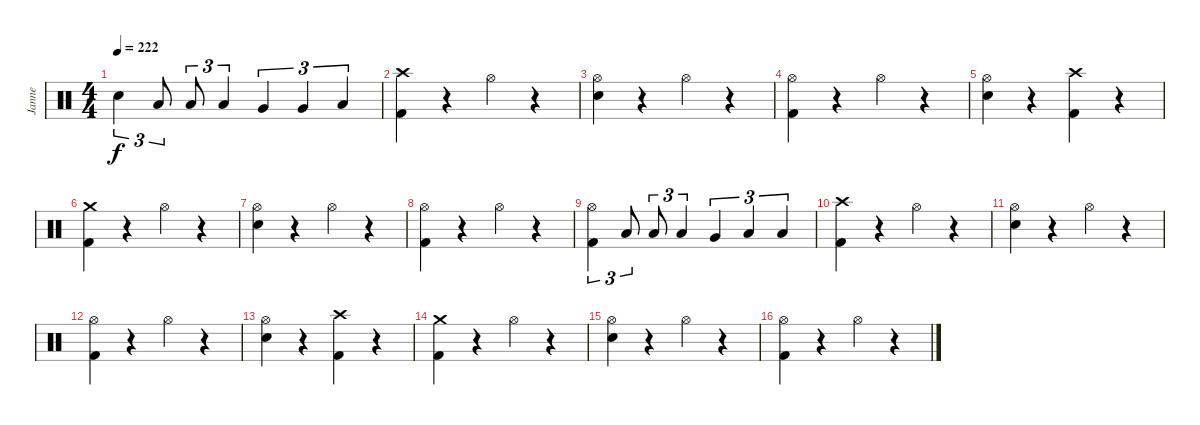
\track ("Janne" "Janne") {instrument percussion}
\staff {score}
\articulation defaults
\ts (4 4)
\tempo 222
\clef neutral
\ks c "Electric Snare (hit)".4{tu (3 2) dy f} "Low Tom (hit)".8{tu (3 2)} "Low Tom (hit)".8{tu (3 2)} "Low Tom (hit)".4{tu (3 2)} "Very Low Tom (hit)".4{tu (3 2)} "Very Low Tom (hit)".4{tu (3 2)} "Low Floor Tom (hit)".4{tu (3 2)}
|
("Crash high (hit)" "Kick (hit) 2").4 r.4 "Hi-Hat (open)".4 r.4 |
("Hi-Hat (open)" "Electric Snare (hit)").4 r.4 "Hi-Hat (open)".4 r.4 |
("Hi-Hat (open)" "Kick (hit) 2").4 r.4 "Hi-Hat (open)".4 r.4 |
("Hi-Hat (open)" "Electric Snare (hit)").4 r.4 ("Crash high (hit)" "Kick (hit) 2").4 r.4 |
("Crash medium (hit)" "Kick (hit) 2").4 r.4 "Hi-Hat (open)".4 r.4 |
("Hi-Hat (open)" "Electric Snare (hit)").4 r.4 "Hi-Hat (open)".4 r.4 |
("Hi-Hat (open)" "Kick (hit) 2").4 r.4 "Hi-Hat (open)".4 r.4 |
("Hi-Hat (open)" "Kick (hit) 2").4{tu (3 2)} "Low Tom (hit)".8{tu (3 2)} "Low Tom (hit)".8{tu (3 2)} "Low Tom (hit)".4{tu (3 2)} "Very Low Tom (hit)".4{tu (3 2)} "Low Floor Tom (hit)".4{tu (3 2)} "Low Floor Tom (hit)".4{tu (3 2)} |
("Crash high (hit)" "Kick (hit) 2").4 r.4 "Hi-Hat (open)".4 r.4 |
("Hi-Hat (open)" "Electric Snare (hit)").4 r.4 "Hi-Hat (open)".4 r.4 |
("Hi-Hat (open)" "Kick (hit) 2").4 r.4 "Hi-Hat (open)".4 r.4 |
("Hi-Hat (open)" "Electric Snare (hit)").4 r.4 ("Crash high (hit)" "Kick (hit) 2").4 r.4 |
("Crash medium (hit)" "Kick (hit) 2").4 r.4 "Hi-Hat (open)".4 r.4 |
("Hi-Hat (open)" "Electric Snare (hit)").4 r.4 "Hi-Hat (open)".4 r.4 |
("Hi-Hat (open)" "Kick (hit) 2").4 r.4 "Hi-Hat (open)".4 r.4
